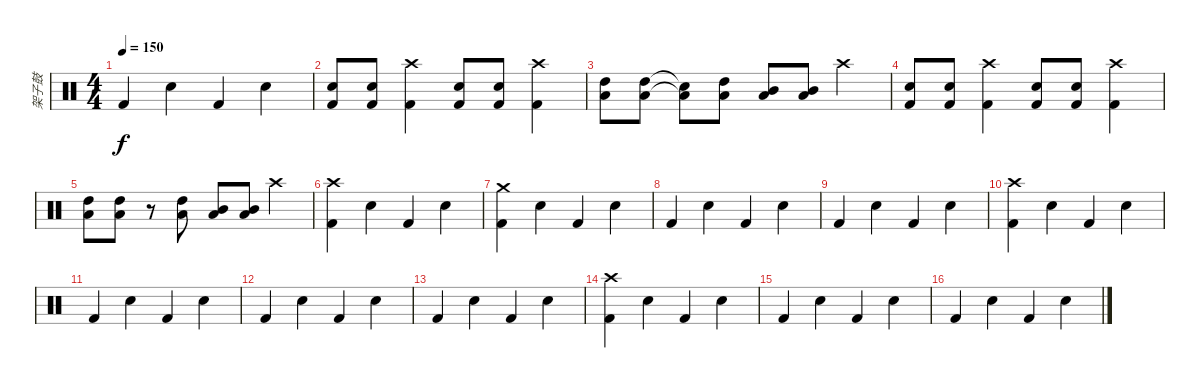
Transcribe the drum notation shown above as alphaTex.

\track ("架子鼓" "架子鼓") {instrument percussion}
\staff {score}
\articulation defaults
\ts (4 4)
\tempo 150
\clef neutral
\ks c "Kick (hit) 2".4{dy f} "Snare (hit) 2".4 "Kick (hit) 2".4 "Snare (hit) 2".4
|
("Kick (hit) 2" "Snare (hit) 2").8 ("Kick (hit) 2" "Snare (hit) 2").8 ("Crash high (hit)" "Kick (hit) 2").4 ("Kick (hit) 2" "Snare (hit) 2").8 ("Kick (hit) 2" "Snare (hit) 2").8 ("Crash high (hit)" "Kick (hit) 2").4 |
("High Tom (hit)" "Low Tom (hit)").8 ("High Tom (hit)" "Low Tom (hit)").8 ("Snare (hit)"{t} "Low Tom (hit)"{t}).8 ("High Tom (hit)" "Low Tom (hit)").8 ("Mid Tom (hit)" "Low Tom (hit)").8 ("Mid Tom (hit)" "Low Tom (hit)").8 "Crash high (hit)".4 |
("Kick (hit) 2" "Snare (hit) 2").8 ("Kick (hit) 2" "Snare (hit) 2").8 ("Crash high (hit)" "Kick (hit) 2").4 ("Kick (hit) 2" "Snare (hit) 2").8 ("Kick (hit) 2" "Snare (hit) 2").8 ("Crash high (hit)" "Kick (hit) 2").4 |
("High Tom (hit)" "Low Tom (hit)").8 ("High Tom (hit)" "Low Tom (hit)").8 r.8 ("High Tom (hit)" "Low Tom (hit)").8 ("Mid Tom (hit)" "Low Tom (hit)").8 ("Mid Tom (hit)" "Low Tom (hit)").8 "Crash high (hit)".4 |
("Crash high (hit)" "Kick (hit) 2").4 "Snare (hit) 2".4 "Kick (hit) 2".4 "Snare (hit) 2".4 |
("Crash medium (hit)" "Kick (hit) 2").4 "Snare (hit) 2".4 "Kick (hit) 2".4 "Snare (hit) 2".4 |
"Kick (hit) 2".4 "Snare (hit) 2".4 "Kick (hit) 2".4 "Snare (hit) 2".4 |
"Kick (hit) 2".4 "Snare (hit) 2".4 "Kick (hit) 2".4 "Snare (hit) 2".4 |
("Crash high (hit)" "Kick (hit) 2").4 "Snare (hit) 2".4 "Kick (hit) 2".4 "Snare (hit) 2".4 |
"Kick (hit) 2".4 "Snare (hit) 2".4 "Kick (hit) 2".4 "Snare (hit) 2".4 |
"Kick (hit) 2".4 "Snare (hit) 2".4 "Kick (hit) 2".4 "Snare (hit) 2".4 |
"Kick (hit) 2".4 "Snare (hit) 2".4 "Kick (hit) 2".4 "Snare (hit) 2".4 |
("Crash high (hit)" "Kick (hit) 2").4 "Snare (hit) 2".4 "Kick (hit) 2".4 "Snare (hit) 2".4 |
"Kick (hit) 2".4 "Snare (hit) 2".4 "Kick (hit) 2".4 "Snare (hit) 2".4 |
"Kick (hit) 2".4 "Snare (hit) 2".4 "Kick (hit) 2".4 "Snare (hit) 2".4
